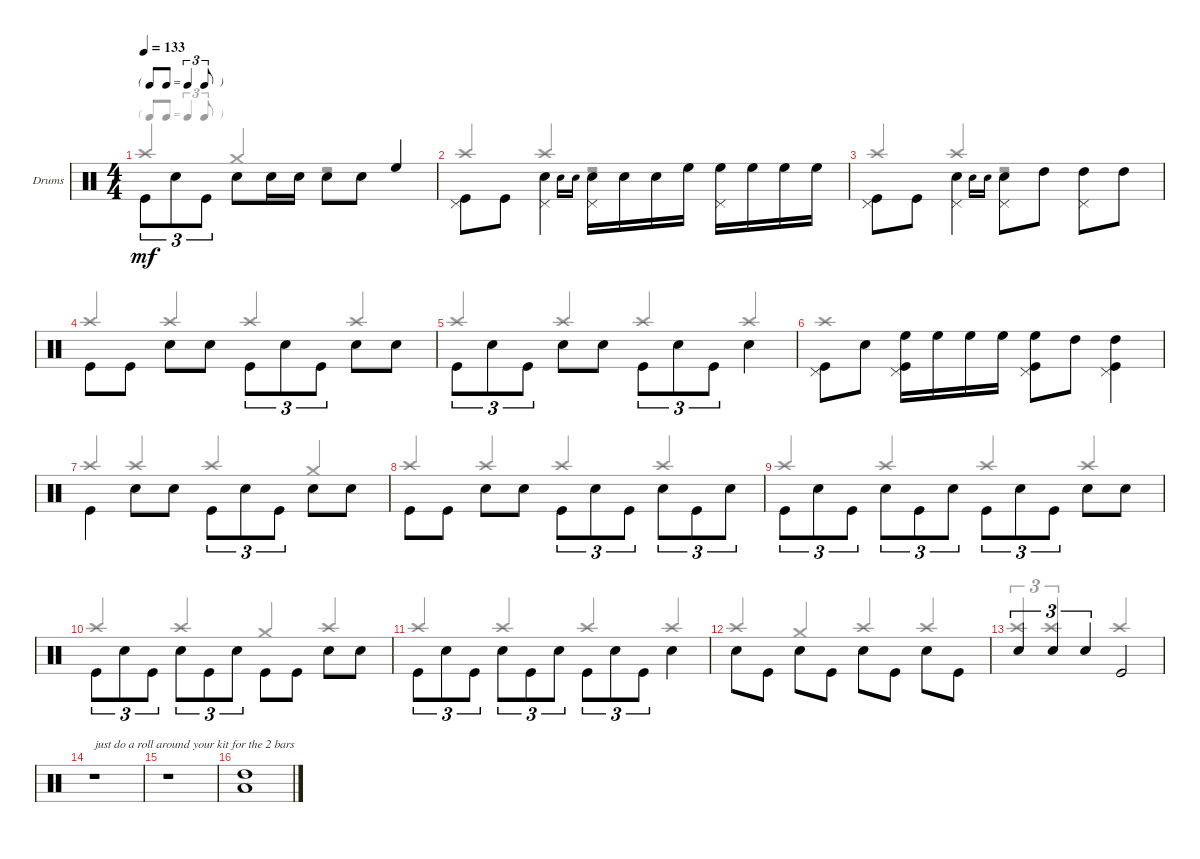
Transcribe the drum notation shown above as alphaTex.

\defaultSystemsLayout 4
\bracketExtendMode groupsimilarinstruments
\firstSystemTrackNameOrientation horizontal
\otherSystemsTrackNameOrientation horizontal
\track ("PETER CRISS" "Drums") {solo instrument percussion}
\staff {score}
\articulation defaults
\voice
\ts (4 4)
\tf triplet8th
\tempo 133
\clef neutral
\ks c "Kick (hit)".8{tu (3 2) dy mf beam invert} "Snare (hit) 2".8{tu (3 2)} "Kick (hit)".8{tu (3 2)} "Snare (hit) 2".8{beam invert} "Snare (hit) 2".16 "Snare (hit) 2".16 "Snare (hit) 2".8{beam invert} "Snare (hit) 2".8 "High Floor Tom (hit)".4
|
("Kick (hit)" "Pedal Hi-Hat (hit)").8{beam invert} "Kick (hit)".8 ("Snare (hit) 2" "Pedal Hi-Hat (hit)").4{beam invert} "Snare (hit) 2".16{gr onbeat} "Snare (hit) 2".16{gr onbeat beam invert} ("Snare (hit) 2" "Pedal Hi-Hat (hit)").16{beam invert} "Snare (hit) 2".16 "Snare (hit) 2".16 "High Floor Tom (hit)".16 ("High Floor Tom (hit)" "Pedal Hi-Hat (hit)").16{beam invert} "High Floor Tom (hit)".16 "High Floor Tom (hit)".16 "High Floor Tom (hit)".16 |
("Kick (hit)" "Pedal Hi-Hat (hit)").8{beam invert} "Kick (hit)".8 ("Snare (hit) 2" "Pedal Hi-Hat (hit)").4{beam invert} "Snare (hit) 2".16{gr onbeat} "Snare (hit) 2".16{gr onbeat beam invert} ("Snare (hit) 2" "Pedal Hi-Hat (hit)").8{beam invert} "High Tom (hit)".8 ("High Tom (hit)" "Pedal Hi-Hat (hit)").8{beam invert} "High Tom (hit)".8 |
"Kick (hit)".8{beam invert} "Kick (hit)".8 "Snare (hit) 2".8{beam invert} "Snare (hit) 2".8 "Kick (hit)".8{tu (3 2) beam invert} "Snare (hit) 2".8{tu (3 2)} "Kick (hit)".8{tu (3 2)} "Snare (hit) 2".8{beam invert} "Snare (hit) 2".8 |
"Kick (hit)".8{tu (3 2) beam invert} "Snare (hit) 2".8{tu (3 2)} "Kick (hit)".8{tu (3 2)} "Snare (hit) 2".8{beam invert} "Snare (hit) 2".8 "Kick (hit)".8{tu (3 2) beam invert} "Snare (hit) 2".8{tu (3 2)} "Kick (hit)".8{tu (3 2)} "Snare (hit) 2".4{beam invert} |
("Kick (hit)" "Pedal Hi-Hat (hit)").8{beam invert} "Snare (hit) 2".8 ("Kick (hit)" "Pedal Hi-Hat (hit)" "High Floor Tom (hit)").16{beam invert} "High Floor Tom (hit)".16 "High Floor Tom (hit)".16 "High Floor Tom (hit)".16 ("High Floor Tom (hit)" "Kick (hit)" "Pedal Hi-Hat (hit)").8{beam invert} "High Tom (hit)".8 ("High Tom (hit)" "Kick (hit)" "Pedal Hi-Hat (hit)").4{beam invert} |
"Kick (hit)".4{beam invert} "Snare (hit) 2".8{beam invert} "Snare (hit) 2".8 "Kick (hit)".8{tu (3 2) beam invert} "Snare (hit) 2".8{tu (3 2)} "Kick (hit)".8{tu (3 2)} "Snare (hit) 2".8{beam invert} "Snare (hit) 2".8 |
"Kick (hit)".8{beam invert} "Kick (hit)".8 "Snare (hit) 2".8{beam invert} "Snare (hit) 2".8 "Kick (hit)".8{tu (3 2) beam invert} "Snare (hit) 2".8{tu (3 2)} "Kick (hit)".8{tu (3 2)} "Snare (hit) 2".8{tu (3 2) beam invert} "Kick (hit)".8{tu (3 2)} "Snare (hit) 2".8{tu (3 2)} |
"Kick (hit)".8{tu (3 2) beam invert} "Snare (hit) 2".8{tu (3 2)} "Kick (hit)".8{tu (3 2)} "Snare (hit) 2".8{tu (3 2) beam invert} "Kick (hit)".8{tu (3 2)} "Snare (hit) 2".8{tu (3 2)} "Kick (hit)".8{tu (3 2) beam invert} "Snare (hit) 2".8{tu (3 2)} "Kick (hit)".8{tu (3 2)} "Snare (hit) 2".8{beam invert} "Snare (hit) 2".8 |
"Kick (hit)".8{tu (3 2) beam invert} "Snare (hit) 2".8{tu (3 2)} "Kick (hit)".8{tu (3 2)} "Snare (hit) 2".8{tu (3 2) beam invert} "Kick (hit)".8{tu (3 2)} "Snare (hit) 2".8{tu (3 2)} "Kick (hit)".8{beam invert} "Kick (hit)".8 "Snare (hit) 2".8{beam invert} "Snare (hit) 2".8 |
"Kick (hit)".8{tu (3 2) beam invert} "Snare (hit) 2".8{tu (3 2)} "Kick (hit)".8{tu (3 2)} "Snare (hit) 2".8{tu (3 2) beam invert} "Kick (hit)".8{tu (3 2)} "Snare (hit) 2".8{tu (3 2)} "Kick (hit)".8{tu (3 2) beam invert} "Snare (hit) 2".8{tu (3 2)} "Kick (hit)".8{tu (3 2)} "Snare (hit) 2".4{beam invert} |
"Snare (hit) 2".8{beam invert} "Kick (hit)".8 "Snare (hit) 2".8{beam invert} "Kick (hit)".8 "Snare (hit) 2".8{beam invert} "Kick (hit)".8 "Snare (hit) 2".8{beam invert} "Kick (hit)".8 |
"Snare (hit) 2".4{tu (3 2)} "Snare (hit) 2".4{tu (3 2)} "Snare (hit) 2".4{tu (3 2)} "Kick (hit)".2 |
r.1{txt "just do a roll around your kit for the 2 bars"} |
r.1 |
("High Tom (hit)" "Low Tom (hit)").1
\voice
\clef neutral
\ottava regular
\simile none
\ks c "Crash high (hit)".4{dy mf beam invert} "Crash medium (hit)".4{beam invert}
r.2{beam invert} |
"Crash high (hit)".4{beam invert} "Crash high (hit)".4{beam invert} r.2{beam invert} |
"Crash high (hit)".4{beam invert} "Crash high (hit)".4{beam invert} r.2{beam invert} |
"Crash high (hit)".4{beam invert} "Crash high (hit)".4{beam invert} "Crash high (hit)".4{beam invert} "Crash high (hit)".4{beam invert} |
"Crash high (hit)".4{beam invert} "Crash high (hit)".4{beam invert} "Crash high (hit)".4{beam invert} "Crash high (hit)".4{beam invert} |
"Crash high (hit)".1{beam invert} |
"Crash high (hit)".4{beam invert} "Crash high (hit)".4{beam invert} "Crash high (hit)".4{beam invert} "Crash medium (hit)".4{beam invert} |
"Crash high (hit)".4{beam invert} "Crash high (hit)".4{beam invert} "Crash high (hit)".4{beam invert} "Crash high (hit)".4{beam invert} |
"Crash high (hit)".4{beam invert} "Crash high (hit)".4{beam invert} "Crash high (hit)".4{beam invert} "Crash high (hit)".4{beam invert} |
"Crash high (hit)".4{beam invert} "Crash high (hit)".4{beam invert} "Crash medium (hit)".4{beam invert} "Crash high (hit)".4{beam invert} |
"Crash high (hit)".4{beam invert} "Crash high (hit)".4{beam invert} "Crash high (hit)".4{beam invert} "Crash high (hit)".4{beam invert} |
"Crash high (hit)".4{beam invert} "Crash medium (hit)".4{beam invert} "Crash high (hit)".4{beam invert} "Crash high (hit)".4{beam invert} |
"Crash high (hit)".4{tu (3 2) beam invert} "Crash high (hit)".2{tu (3 2) beam invert} "Crash high (hit)".2{beam invert} |
|
|
